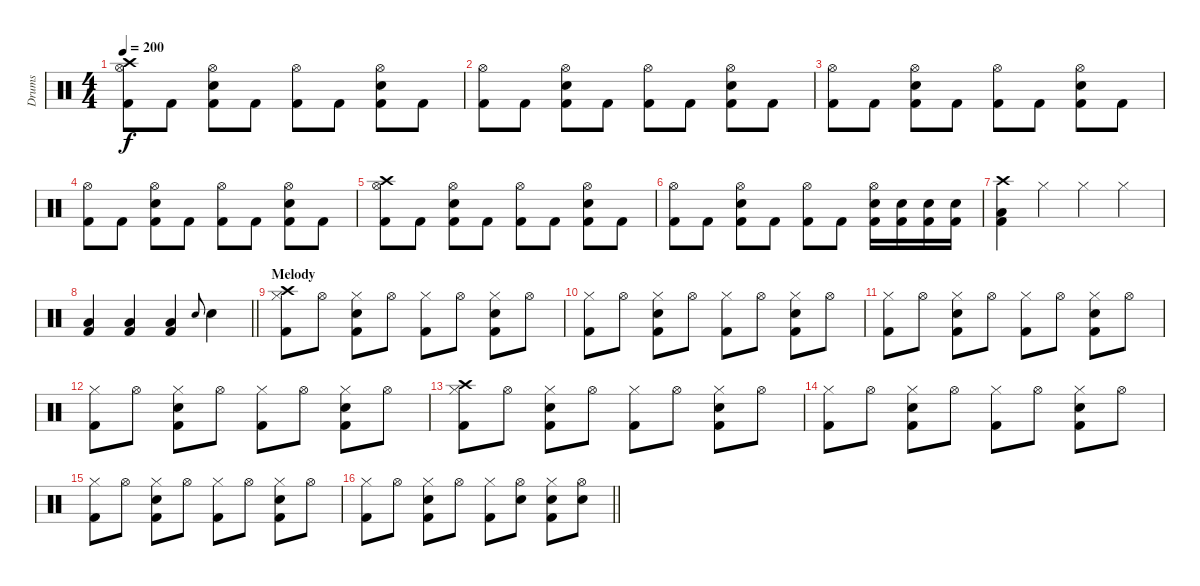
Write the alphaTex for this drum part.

\track ("Drums" "Drums") {instrument percussion}
\staff {score}
\articulation defaults
\ts (4 4)
\tempo 200
\clef neutral
\ks c
("Crash high (hit)" "Hi-Hat (open)" "Kick (hit) 2").8{dy f} "Kick (hit) 2".8 ("Hi-Hat (open)" "Snare (hit) 2" "Kick (hit) 2").8 "Kick (hit) 2".8 ("Hi-Hat (open)" "Kick (hit) 2").8 "Kick (hit) 2".8 ("Hi-Hat (open)" "Snare (hit) 2" "Kick (hit) 2").8 "Kick (hit) 2".8 |
("Hi-Hat (open)" "Kick (hit) 2").8 "Kick (hit) 2".8 ("Hi-Hat (open)" "Snare (hit) 2" "Kick (hit) 2").8 "Kick (hit) 2".8 ("Hi-Hat (open)" "Kick (hit) 2").8 "Kick (hit) 2".8 ("Hi-Hat (open)" "Snare (hit) 2" "Kick (hit) 2").8 "Kick (hit) 2".8 |
("Hi-Hat (open)" "Kick (hit) 2").8 "Kick (hit) 2".8 ("Hi-Hat (open)" "Snare (hit) 2" "Kick (hit) 2").8 "Kick (hit) 2".8 ("Hi-Hat (open)" "Kick (hit) 2").8 "Kick (hit) 2".8 ("Hi-Hat (open)" "Snare (hit) 2" "Kick (hit) 2").8 "Kick (hit) 2".8 |
("Hi-Hat (open)" "Kick (hit) 2").8 "Kick (hit) 2".8 ("Hi-Hat (open)" "Snare (hit) 2" "Kick (hit) 2").8 "Kick (hit) 2".8 ("Hi-Hat (open)" "Kick (hit) 2").8 "Kick (hit) 2".8 ("Hi-Hat (open)" "Snare (hit) 2" "Kick (hit) 2").8 "Kick (hit) 2".8 |
("Crash high (hit)" "Hi-Hat (open)" "Kick (hit) 2").8 "Kick (hit) 2".8 ("Hi-Hat (open)" "Snare (hit) 2" "Kick (hit) 2").8 "Kick (hit) 2".8 ("Hi-Hat (open)" "Kick (hit) 2").8 "Kick (hit) 2".8 ("Hi-Hat (open)" "Snare (hit) 2" "Kick (hit) 2").8 "Kick (hit) 2".8 |
("Hi-Hat (open)" "Kick (hit) 2").8 "Kick (hit) 2".8 ("Hi-Hat (open)" "Snare (hit) 2" "Kick (hit) 2").8 "Kick (hit) 2".8 ("Hi-Hat (open)" "Kick (hit) 2").8 "Kick (hit) 2".8 ("Hi-Hat (open)" "Snare (hit) 2" "Kick (hit) 2").16 ("Snare (hit) 2" "Kick (hit) 2").16 ("Snare (hit) 2" "Kick (hit) 2").16 ("Snare (hit) 2" "Kick (hit) 2").16 |
("Crash high (hit)" "Low Floor Tom (hit)" "Kick (hit) 2").4 "Hi-Hat (closed)".4 "Hi-Hat (closed)".4 "Hi-Hat (closed)".4 |
\barLineRight lightlight
("Low Floor Tom (hit)" "Kick (hit) 2").4 ("Low Floor Tom (hit)" "Kick (hit) 2").4 ("Low Floor Tom (hit)" "Kick (hit) 2").4 "Snare (hit) 2".8{gr onbeat} "Snare (hit) 2".4 |
\section ("" "Melody")
("Crash high (hit)" "Hi-Hat (closed)" "Kick (hit) 2").8 "Hi-Hat (open)".8 ("Hi-Hat (closed)" "Snare (hit) 2" "Kick (hit) 2").8 "Hi-Hat (open)".8 ("Hi-Hat (closed)" "Kick (hit) 2").8 "Hi-Hat (open)".8 ("Hi-Hat (closed)" "Snare (hit) 2" "Kick (hit) 2").8 "Hi-Hat (open)".8 |
("Hi-Hat (closed)" "Kick (hit) 2").8 "Hi-Hat (open)".8 ("Hi-Hat (closed)" "Snare (hit) 2" "Kick (hit) 2").8 "Hi-Hat (open)".8 ("Hi-Hat (closed)" "Kick (hit) 2").8 "Hi-Hat (open)".8 ("Hi-Hat (closed)" "Snare (hit) 2" "Kick (hit) 2").8 "Hi-Hat (open)".8 |
("Hi-Hat (closed)" "Kick (hit) 2").8 "Hi-Hat (open)".8 ("Hi-Hat (closed)" "Snare (hit) 2" "Kick (hit) 2").8 "Hi-Hat (open)".8 ("Hi-Hat (closed)" "Kick (hit) 2").8 "Hi-Hat (open)".8 ("Hi-Hat (closed)" "Snare (hit) 2" "Kick (hit) 2").8 "Hi-Hat (open)".8 |
("Hi-Hat (closed)" "Kick (hit) 2").8 "Hi-Hat (open)".8 ("Hi-Hat (closed)" "Snare (hit) 2" "Kick (hit) 2").8 "Hi-Hat (open)".8 ("Hi-Hat (closed)" "Kick (hit) 2").8 "Hi-Hat (open)".8 ("Hi-Hat (closed)" "Snare (hit) 2" "Kick (hit) 2").8 "Hi-Hat (open)".8 |
("Crash high (hit)" "Hi-Hat (closed)" "Kick (hit) 2").8 "Hi-Hat (open)".8 ("Hi-Hat (closed)" "Snare (hit) 2" "Kick (hit) 2").8 "Hi-Hat (open)".8 ("Hi-Hat (closed)" "Kick (hit) 2").8 "Hi-Hat (open)".8 ("Hi-Hat (closed)" "Snare (hit) 2" "Kick (hit) 2").8 "Hi-Hat (open)".8 |
("Hi-Hat (closed)" "Kick (hit) 2").8 "Hi-Hat (open)".8 ("Hi-Hat (closed)" "Snare (hit) 2" "Kick (hit) 2").8 "Hi-Hat (open)".8 ("Hi-Hat (closed)" "Kick (hit) 2").8 "Hi-Hat (open)".8 ("Hi-Hat (closed)" "Snare (hit) 2" "Kick (hit) 2").8 "Hi-Hat (open)".8 |
("Hi-Hat (closed)" "Kick (hit) 2").8 "Hi-Hat (open)".8 ("Hi-Hat (closed)" "Snare (hit) 2" "Kick (hit) 2").8 "Hi-Hat (open)".8 ("Hi-Hat (closed)" "Kick (hit) 2").8 "Hi-Hat (open)".8 ("Hi-Hat (closed)" "Snare (hit) 2" "Kick (hit) 2").8 "Hi-Hat (open)".8 |
\barLineRight lightlight
("Hi-Hat (closed)" "Kick (hit) 2").8 "Hi-Hat (open)".8 ("Hi-Hat (closed)" "Snare (hit) 2" "Kick (hit) 2").8 "Hi-Hat (open)".8 ("Hi-Hat (closed)" "Kick (hit) 2").8 ("Hi-Hat (open)" "Snare (hit) 2").8 ("Hi-Hat (closed)" "Snare (hit) 2" "Kick (hit) 2").8 ("Hi-Hat (open)" "Snare (hit) 2").8
